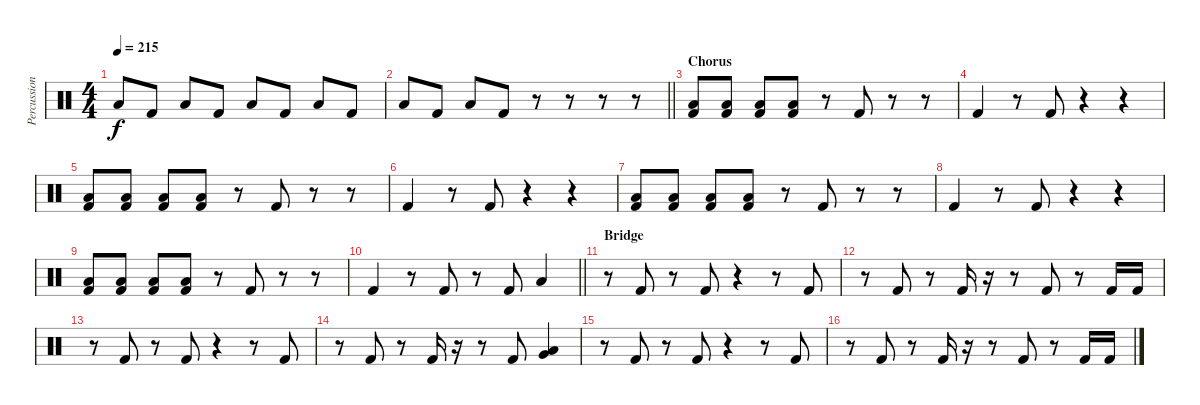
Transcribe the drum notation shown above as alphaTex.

\track ("Percussion" "Percussion") {instrument percussion}
\staff {score}
\articulation defaults
\ts (4 4)
\tempo 215
\clef neutral
\ks c "Low Floor Tom (hit)".8{dy f} "Kick (hit) 2".8 "Low Floor Tom (hit)".8 "Kick (hit) 2".8 "Low Floor Tom (hit)".8 "Kick (hit) 2".8 "Low Floor Tom (hit)".8 "Kick (hit) 2".8
|
\barLineRight lightlight "Low Floor Tom (hit)".8 "Kick (hit) 2".8 "Low Floor Tom (hit)".8 "Kick (hit) 2".8
r.8 r.8 r.8 r.8 |
\section ("" "Chorus")
("Low Floor Tom (hit)" "Kick (hit) 2").8 ("Low Floor Tom (hit)" "Kick (hit) 2").8 ("Low Floor Tom (hit)" "Kick (hit) 2").8 ("Low Floor Tom (hit)" "Kick (hit) 2").8 r.8 "Kick (hit) 2".8 r.8 r.8 |
"Kick (hit) 2".4 r.8 "Kick (hit) 2".8 r.4 r.4 |
("Low Floor Tom (hit)" "Kick (hit) 2").8 ("Low Floor Tom (hit)" "Kick (hit) 2").8 ("Low Floor Tom (hit)" "Kick (hit) 2").8 ("Low Floor Tom (hit)" "Kick (hit) 2").8 r.8 "Kick (hit) 2".8 r.8 r.8 |
"Kick (hit) 2".4 r.8 "Kick (hit) 2".8 r.4 r.4 |
("Low Floor Tom (hit)" "Kick (hit) 2").8 ("Low Floor Tom (hit)" "Kick (hit) 2").8 ("Low Floor Tom (hit)" "Kick (hit) 2").8 ("Low Floor Tom (hit)" "Kick (hit) 2").8 r.8 "Kick (hit) 2".8 r.8 r.8 |
"Kick (hit) 2".4 r.8 "Kick (hit) 2".8 r.4 r.4 |
("Low Floor Tom (hit)" "Kick (hit) 2").8 ("Low Floor Tom (hit)" "Kick (hit) 2").8 ("Low Floor Tom (hit)" "Kick (hit) 2").8 ("Low Floor Tom (hit)" "Kick (hit) 2").8 r.8 "Kick (hit) 2".8 r.8 r.8 |
\barLineRight lightlight "Kick (hit) 2".4
r.8 "Kick (hit) 2".8 r.8 "Kick (hit) 2".8 "Low Tom (hit)".4 |
\section ("" "Bridge")
r.8 "Kick (hit) 2".8 r.8 "Kick (hit) 2".8 r.4 r.8 "Kick (hit) 2".8 |
r.8 "Kick (hit) 2".8 r.8 "Kick (hit) 2".16 r.16 r.8 "Kick (hit) 2".8 r.8 "Kick (hit) 2".16 "Kick (hit) 2".16 |
r.8 "Kick (hit) 2".8 r.8 "Kick (hit) 2".8 r.4 r.8 "Kick (hit) 2".8 |
r.8 "Kick (hit) 2".8 r.8 "Kick (hit) 2".16 r.16 r.8 "Kick (hit) 2".8 ("Very Low Tom (hit)" "Low Tom (hit)").4 |
r.8 "Kick (hit) 2".8 r.8 "Kick (hit) 2".8 r.4 r.8 "Kick (hit) 2".8 |
r.8 "Kick (hit) 2".8 r.8 "Kick (hit) 2".16 r.16 r.8 "Kick (hit) 2".8 r.8 "Kick (hit) 2".16 "Kick (hit) 2".16
